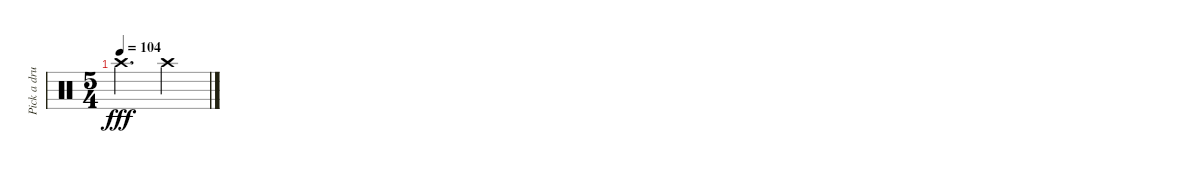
\track ("Pick a drummer any drummer" "Pick a dru") {instrument percussion}
\staff {score}
\articulation defaults
\ts (5 4)
\tempo 104
\clef neutral
\ks c "Crash high (hit)".2{d dy fff} "Crash high (hit)".2
